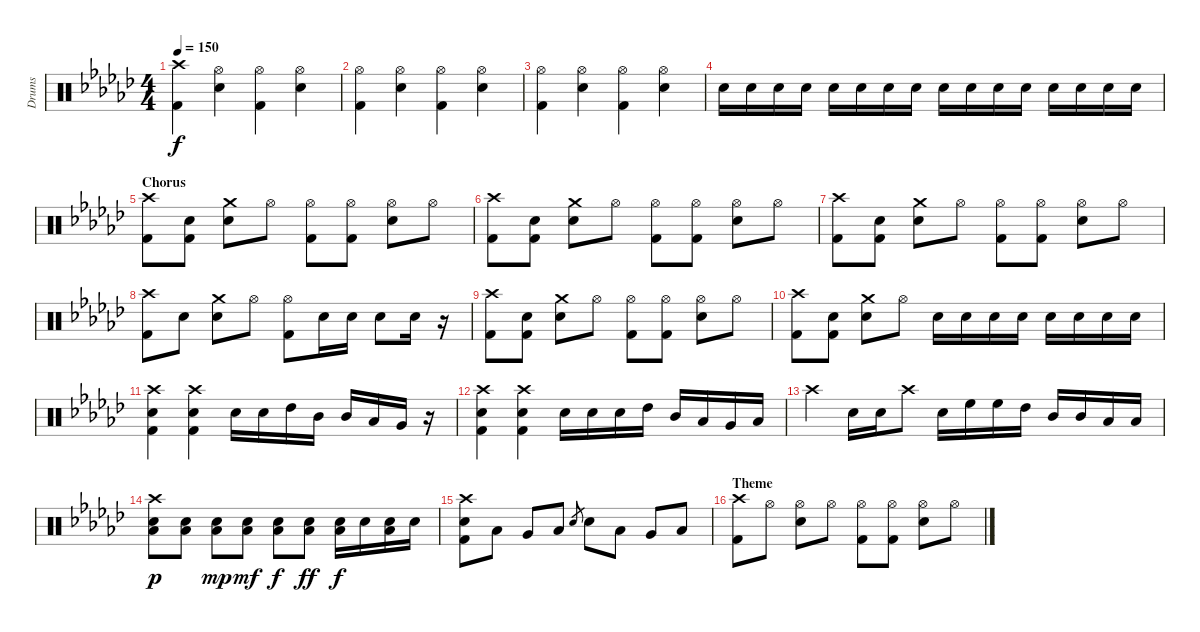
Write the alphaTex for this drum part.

\track ("Drums" "Drums") {instrument percussion}
\staff {score}
\articulation defaults
\ts (4 4)
\tempo 150
\clef neutral
\ks gb
("Crash high (hit)" "Kick (hit) 2").4{dy f} ("Hi-Hat (open)" "Electric Snare (hit)").4 ("Hi-Hat (open)" "Kick (hit) 2").4 ("Hi-Hat (open)" "Electric Snare (hit)").4 |
("Hi-Hat (open)" "Kick (hit) 2").4 ("Hi-Hat (open)" "Electric Snare (hit)").4 ("Hi-Hat (open)" "Kick (hit) 2").4 ("Hi-Hat (open)" "Electric Snare (hit)").4 |
("Hi-Hat (open)" "Kick (hit) 2").4 ("Hi-Hat (open)" "Electric Snare (hit)").4 ("Hi-Hat (open)" "Kick (hit) 2").4 ("Hi-Hat (open)" "Electric Snare (hit)").4 |
"Electric Snare (hit)".16 "Electric Snare (hit)".16 "Electric Snare (hit)".16 "Electric Snare (hit)".16 "Electric Snare (hit)".16 "Electric Snare (hit)".16 "Electric Snare (hit)".16 "Electric Snare (hit)".16 "Electric Snare (hit)".16 "Electric Snare (hit)".16 "Electric Snare (hit)".16 "Electric Snare (hit)".16 "Electric Snare (hit)".16 "Electric Snare (hit)".16 "Electric Snare (hit)".16 "Electric Snare (hit)".16 |
\section ("" "Chorus")
("Crash high (hit)" "Kick (hit) 2").8 ("Electric Snare (hit)" "Kick (hit) 2").8 ("Crash medium (hit)" "Electric Snare (hit)").8 "Hi-Hat (open)".8 ("Hi-Hat (open)" "Kick (hit) 2").8 ("Hi-Hat (open)" "Kick (hit) 2").8 ("Hi-Hat (open)" "Electric Snare (hit)").8 "Hi-Hat (open)".8 |
("Crash high (hit)" "Kick (hit) 2").8 ("Electric Snare (hit)" "Kick (hit) 2").8 ("Crash medium (hit)" "Electric Snare (hit)").8 "Hi-Hat (open)".8 ("Hi-Hat (open)" "Kick (hit) 2").8 ("Hi-Hat (open)" "Kick (hit) 2").8 ("Hi-Hat (open)" "Electric Snare (hit)").8 "Hi-Hat (open)".8 |
("Crash high (hit)" "Kick (hit) 2").8 ("Electric Snare (hit)" "Kick (hit) 2").8 ("Crash medium (hit)" "Electric Snare (hit)").8 "Hi-Hat (open)".8 ("Hi-Hat (open)" "Kick (hit) 2").8 ("Hi-Hat (open)" "Kick (hit) 2").8 ("Hi-Hat (open)" "Electric Snare (hit)").8 "Hi-Hat (open)".8 |
("Crash high (hit)" "Kick (hit) 2").8 "Electric Snare (hit)".8 ("Crash medium (hit)" "Electric Snare (hit)").8 "Hi-Hat (open)".8 ("Hi-Hat (open)" "Kick (hit) 2").8 "Electric Snare (hit)".16 "Electric Snare (hit)".16 "Electric Snare (hit)".8 "Electric Snare (hit)".16 r.16 |
("Crash high (hit)" "Kick (hit) 2").8 ("Electric Snare (hit)" "Kick (hit) 2").8 ("Crash medium (hit)" "Electric Snare (hit)").8 "Hi-Hat (open)".8 ("Hi-Hat (open)" "Kick (hit) 2").8 ("Hi-Hat (open)" "Kick (hit) 2").8 ("Hi-Hat (open)" "Electric Snare (hit)").8 "Hi-Hat (open)".8 |
("Crash high (hit)" "Kick (hit) 2").8 ("Electric Snare (hit)" "Kick (hit) 2").8 ("Crash medium (hit)" "Electric Snare (hit)").8 "Hi-Hat (open)".8 "Electric Snare (hit)".16 "Electric Snare (hit)".16 "Electric Snare (hit)".16 "Electric Snare (hit)".16 "Electric Snare (hit)".16 "Electric Snare (hit)".16 "Electric Snare (hit)".16 "Electric Snare (hit)".16 |
("Crash high (hit)" "Kick (hit) 2" "Electric Snare (hit)").4 ("Crash high (hit)" "Kick (hit) 2" "Electric Snare (hit)").4 "Electric Snare (hit)".16 "Electric Snare (hit)".16 "High Tom (hit)".16 "Mid Tom (hit)".16 "Mid Tom (hit)".16 "Low Tom (hit)".16 "Very Low Tom (hit)".16 r.16 |
("Crash high (hit)" "Kick (hit) 2" "Electric Snare (hit)").4 ("Crash high (hit)" "Kick (hit) 2" "Electric Snare (hit)").4 "Electric Snare (hit)".16 "Electric Snare (hit)".16 "Electric Snare (hit)".16 "High Tom (hit)".16 "Mid Tom (hit)".16 "Low Tom (hit)".16 "Very Low Tom (hit)".16 "Low Floor Tom (hit)".16 |
"Crash high (hit)".4 "Electric Snare (hit)".16 "Electric Snare (hit)".16 "Crash high (hit)".8 "Electric Snare (hit)".16 "High Floor Tom (hit)".16 "High Floor Tom (hit)".16 "High Tom (hit)".16 "Mid Tom (hit)".16 "Mid Tom (hit)".16 "Low Tom (hit)".16 "Low Tom (hit)".16 |
("Crash high (hit)" "Low Tom (hit)" "Electric Snare (hit)").8{dy p} ("Low Tom (hit)" "Electric Snare (hit)").8 ("Low Tom (hit)" "Electric Snare (hit)").8{dy mp} ("Low Tom (hit)" "Electric Snare (hit)").8{dy mf} ("Low Tom (hit)" "Electric Snare (hit)").8{dy f} ("Low Tom (hit)" "Electric Snare (hit)").8{dy ff} ("Electric Snare (hit)" "Low Tom (hit)").16{dy f} "Electric Snare (hit)".16 ("Electric Snare (hit)" "Low Tom (hit)").16 "Electric Snare (hit)".16 |
("Crash high (hit)" "Kick (hit) 2" "Electric Snare (hit)").8 "Low Tom (hit)".8 "Very Low Tom (hit)".8 "Low Floor Tom (hit)".8 "Electric Snare (hit)".8{gr} "Electric Snare (hit)".8 "Low Tom (hit)".8 "Very Low Tom (hit)".8 "Low Floor Tom (hit)".8 |
\section ("" "Theme")
("Crash high (hit)" "Kick (hit) 2").8 "Hi-Hat (open)".8 ("Hi-Hat (open)" "Electric Snare (hit)").8 "Hi-Hat (open)".8 ("Hi-Hat (open)" "Kick (hit) 2").8 ("Hi-Hat (open)" "Kick (hit) 2").8 ("Hi-Hat (open)" "Electric Snare (hit)").8 "Hi-Hat (open)".8
